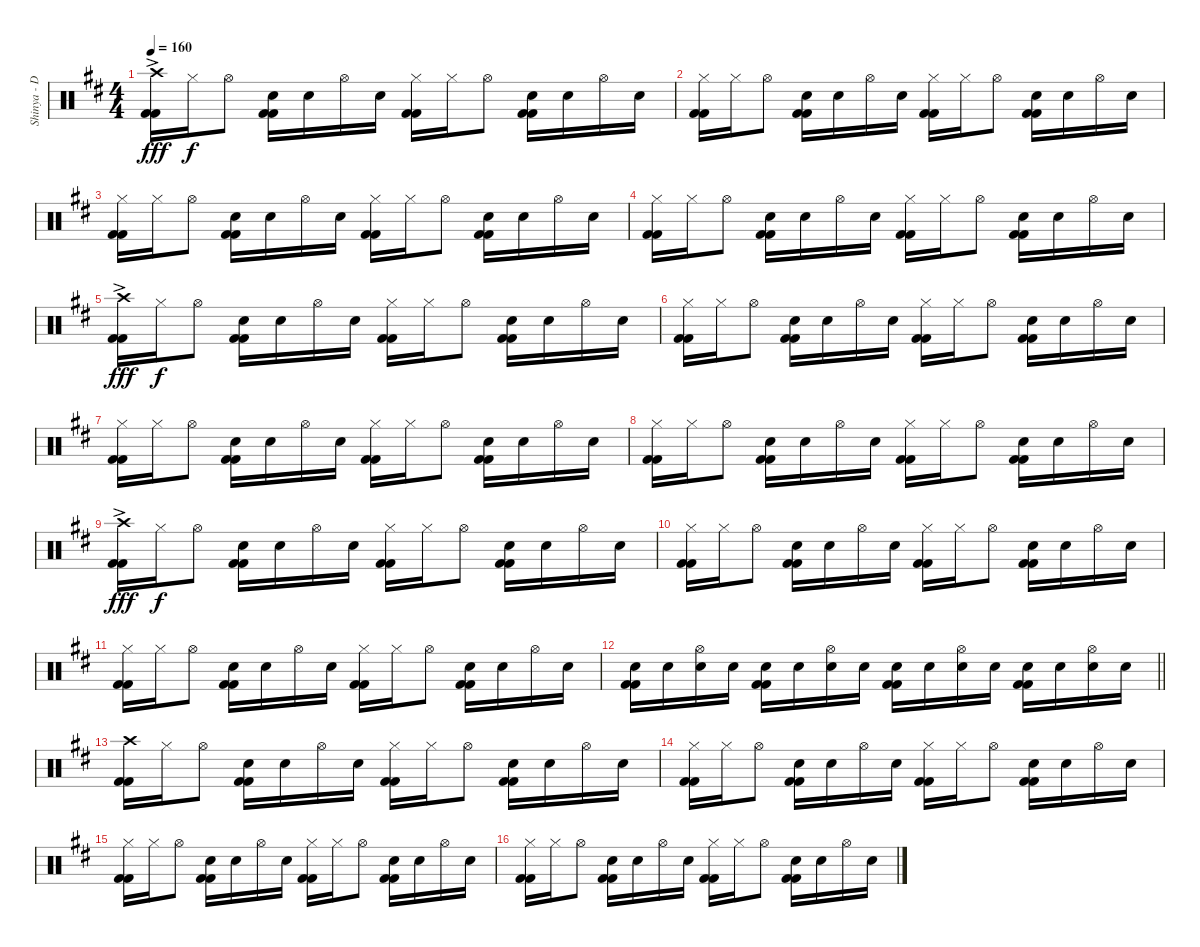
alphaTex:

\track ("Shinya - Drums" "Shinya - D") {instrument percussion}
\staff {score}
\articulation defaults
\ts (4 4)
\tempo 160
\clef neutral
\ks d
("Crash high (hit)"{ac} "Kick (hit) 2" "Kick (hit) 2").16{dy fff} "Hi-Hat (closed)".16{dy f} "Hi-Hat (open)".8 ("Snare (hit) 2" "Kick (hit) 2" "Kick (hit) 2").16 "Snare (hit) 2".16 "Hi-Hat (open)".16 "Snare (hit) 2".16 ("Hi-Hat (closed)" "Kick (hit) 2" "Kick (hit) 2").16 "Hi-Hat (closed)".16 "Hi-Hat (open)".8 ("Snare (hit) 2" "Kick (hit) 2" "Kick (hit) 2").16 "Snare (hit) 2".16 "Hi-Hat (open)".16 "Snare (hit) 2".16 |
("Hi-Hat (closed)" "Kick (hit) 2" "Kick (hit) 2").16 "Hi-Hat (closed)".16 "Hi-Hat (open)".8 ("Snare (hit) 2" "Kick (hit) 2" "Kick (hit) 2").16 "Snare (hit) 2".16 "Hi-Hat (open)".16 "Snare (hit) 2".16 ("Hi-Hat (closed)" "Kick (hit) 2" "Kick (hit) 2").16 "Hi-Hat (closed)".16 "Hi-Hat (open)".8 ("Snare (hit) 2" "Kick (hit) 2" "Kick (hit) 2").16 "Snare (hit) 2".16 "Hi-Hat (open)".16 "Snare (hit) 2".16 |
("Hi-Hat (closed)" "Kick (hit) 2" "Kick (hit) 2").16 "Hi-Hat (closed)".16 "Hi-Hat (open)".8 ("Snare (hit) 2" "Kick (hit) 2" "Kick (hit) 2").16 "Snare (hit) 2".16 "Hi-Hat (open)".16 "Snare (hit) 2".16 ("Hi-Hat (closed)" "Kick (hit) 2" "Kick (hit) 2").16 "Hi-Hat (closed)".16 "Hi-Hat (open)".8 ("Snare (hit) 2" "Kick (hit) 2" "Kick (hit) 2").16 "Snare (hit) 2".16 "Hi-Hat (open)".16 "Snare (hit) 2".16 |
("Hi-Hat (closed)" "Kick (hit) 2" "Kick (hit) 2").16 "Hi-Hat (closed)".16 "Hi-Hat (open)".8 ("Snare (hit) 2" "Kick (hit) 2" "Kick (hit) 2").16 "Snare (hit) 2".16 "Hi-Hat (open)".16 "Snare (hit) 2".16 ("Hi-Hat (closed)" "Kick (hit) 2" "Kick (hit) 2").16 "Hi-Hat (closed)".16 "Hi-Hat (open)".8 ("Snare (hit) 2" "Kick (hit) 2" "Kick (hit) 2").16 "Snare (hit) 2".16 "Hi-Hat (open)".16 "Snare (hit) 2".16 |
("Crash high (hit)"{ac} "Kick (hit) 2" "Kick (hit) 2").16{dy fff} "Hi-Hat (closed)".16{dy f} "Hi-Hat (open)".8 ("Snare (hit) 2" "Kick (hit) 2" "Kick (hit) 2").16 "Snare (hit) 2".16 "Hi-Hat (open)".16 "Snare (hit) 2".16 ("Hi-Hat (closed)" "Kick (hit) 2" "Kick (hit) 2").16 "Hi-Hat (closed)".16 "Hi-Hat (open)".8 ("Snare (hit) 2" "Kick (hit) 2" "Kick (hit) 2").16 "Snare (hit) 2".16 "Hi-Hat (open)".16 "Snare (hit) 2".16 |
("Hi-Hat (closed)" "Kick (hit) 2" "Kick (hit) 2").16 "Hi-Hat (closed)".16 "Hi-Hat (open)".8 ("Snare (hit) 2" "Kick (hit) 2" "Kick (hit) 2").16 "Snare (hit) 2".16 "Hi-Hat (open)".16 "Snare (hit) 2".16 ("Hi-Hat (closed)" "Kick (hit) 2" "Kick (hit) 2").16 "Hi-Hat (closed)".16 "Hi-Hat (open)".8 ("Snare (hit) 2" "Kick (hit) 2" "Kick (hit) 2").16 "Snare (hit) 2".16 "Hi-Hat (open)".16 "Snare (hit) 2".16 |
("Hi-Hat (closed)" "Kick (hit) 2" "Kick (hit) 2").16 "Hi-Hat (closed)".16 "Hi-Hat (open)".8 ("Snare (hit) 2" "Kick (hit) 2" "Kick (hit) 2").16 "Snare (hit) 2".16 "Hi-Hat (open)".16 "Snare (hit) 2".16 ("Hi-Hat (closed)" "Kick (hit) 2" "Kick (hit) 2").16 "Hi-Hat (closed)".16 "Hi-Hat (open)".8 ("Snare (hit) 2" "Kick (hit) 2" "Kick (hit) 2").16 "Snare (hit) 2".16 "Hi-Hat (open)".16 "Snare (hit) 2".16 |
("Hi-Hat (closed)" "Kick (hit) 2" "Kick (hit) 2").16 "Hi-Hat (closed)".16 "Hi-Hat (open)".8 ("Snare (hit) 2" "Kick (hit) 2" "Kick (hit) 2").16 "Snare (hit) 2".16 "Hi-Hat (open)".16 "Snare (hit) 2".16 ("Hi-Hat (closed)" "Kick (hit) 2" "Kick (hit) 2").16 "Hi-Hat (closed)".16 "Hi-Hat (open)".8 ("Snare (hit) 2" "Kick (hit) 2" "Kick (hit) 2").16 "Snare (hit) 2".16 "Hi-Hat (open)".16 "Snare (hit) 2".16 |
("Crash high (hit)"{ac} "Kick (hit) 2" "Kick (hit) 2").16{dy fff} "Hi-Hat (closed)".16{dy f} "Hi-Hat (open)".8 ("Snare (hit) 2" "Kick (hit) 2" "Kick (hit) 2").16 "Snare (hit) 2".16 "Hi-Hat (open)".16 "Snare (hit) 2".16 ("Hi-Hat (closed)" "Kick (hit) 2" "Kick (hit) 2").16 "Hi-Hat (closed)".16 "Hi-Hat (open)".8 ("Snare (hit) 2" "Kick (hit) 2" "Kick (hit) 2").16 "Snare (hit) 2".16 "Hi-Hat (open)".16 "Snare (hit) 2".16 |
("Hi-Hat (closed)" "Kick (hit) 2" "Kick (hit) 2").16 "Hi-Hat (closed)".16 "Hi-Hat (open)".8 ("Snare (hit) 2" "Kick (hit) 2" "Kick (hit) 2").16 "Snare (hit) 2".16 "Hi-Hat (open)".16 "Snare (hit) 2".16 ("Hi-Hat (closed)" "Kick (hit) 2" "Kick (hit) 2").16 "Hi-Hat (closed)".16 "Hi-Hat (open)".8 ("Snare (hit) 2" "Kick (hit) 2" "Kick (hit) 2").16 "Snare (hit) 2".16 "Hi-Hat (open)".16 "Snare (hit) 2".16 |
("Hi-Hat (closed)" "Kick (hit) 2" "Kick (hit) 2").16 "Hi-Hat (closed)".16 "Hi-Hat (open)".8 ("Snare (hit) 2" "Kick (hit) 2" "Kick (hit) 2").16 "Snare (hit) 2".16 "Hi-Hat (open)".16 "Snare (hit) 2".16 ("Hi-Hat (closed)" "Kick (hit) 2" "Kick (hit) 2").16 "Hi-Hat (closed)".16 "Hi-Hat (open)".8 ("Snare (hit) 2" "Kick (hit) 2" "Kick (hit) 2").16 "Snare (hit) 2".16 "Hi-Hat (open)".16 "Snare (hit) 2".16 |
\barLineRight lightlight
("Snare (hit) 2" "Kick (hit) 2" "Kick (hit) 2").16 "Snare (hit) 2".16 ("Hi-Hat (open)" "Snare (hit) 2").16 "Snare (hit) 2".16 ("Snare (hit) 2" "Kick (hit) 2" "Kick (hit) 2").16 "Snare (hit) 2".16 ("Hi-Hat (open)" "Snare (hit) 2").16 "Snare (hit) 2".16 ("Snare (hit) 2" "Kick (hit) 2" "Kick (hit) 2").16 "Snare (hit) 2".16 ("Hi-Hat (open)" "Snare (hit) 2").16 "Snare (hit) 2".16 ("Snare (hit) 2" "Kick (hit) 2" "Kick (hit) 2").16 "Snare (hit) 2".16 ("Hi-Hat (open)" "Snare (hit) 2").16 "Snare (hit) 2".16 |
("Crash high (hit)" "Kick (hit) 2" "Kick (hit) 2").16 "Hi-Hat (closed)".16 "Hi-Hat (open)".8 ("Snare (hit) 2" "Kick (hit) 2" "Kick (hit) 2").16 "Snare (hit) 2".16 "Hi-Hat (open)".16 "Snare (hit) 2".16 ("Hi-Hat (closed)" "Kick (hit) 2" "Kick (hit) 2").16 "Hi-Hat (closed)".16 "Hi-Hat (open)".8 ("Snare (hit) 2" "Kick (hit) 2" "Kick (hit) 2").16 "Snare (hit) 2".16 "Hi-Hat (open)".16 "Snare (hit) 2".16 |
("Hi-Hat (closed)" "Kick (hit) 2" "Kick (hit) 2").16 "Hi-Hat (closed)".16 "Hi-Hat (open)".8 ("Snare (hit) 2" "Kick (hit) 2" "Kick (hit) 2").16 "Snare (hit) 2".16 "Hi-Hat (open)".16 "Snare (hit) 2".16 ("Hi-Hat (closed)" "Kick (hit) 2" "Kick (hit) 2").16 "Hi-Hat (closed)".16 "Hi-Hat (open)".8 ("Snare (hit) 2" "Kick (hit) 2" "Kick (hit) 2").16 "Snare (hit) 2".16 "Hi-Hat (open)".16 "Snare (hit) 2".16 |
("Hi-Hat (closed)" "Kick (hit) 2" "Kick (hit) 2").16 "Hi-Hat (closed)".16 "Hi-Hat (open)".8 ("Snare (hit) 2" "Kick (hit) 2" "Kick (hit) 2").16 "Snare (hit) 2".16 "Hi-Hat (open)".16 "Snare (hit) 2".16 ("Hi-Hat (closed)" "Kick (hit) 2" "Kick (hit) 2").16 "Hi-Hat (closed)".16 "Hi-Hat (open)".8 ("Snare (hit) 2" "Kick (hit) 2" "Kick (hit) 2").16 "Snare (hit) 2".16 "Hi-Hat (open)".16 "Snare (hit) 2".16 |
("Hi-Hat (closed)" "Kick (hit) 2" "Kick (hit) 2").16 "Hi-Hat (closed)".16 "Hi-Hat (open)".8 ("Snare (hit) 2" "Kick (hit) 2" "Kick (hit) 2").16 "Snare (hit) 2".16 "Hi-Hat (open)".16 "Snare (hit) 2".16 ("Hi-Hat (closed)" "Kick (hit) 2" "Kick (hit) 2").16 "Hi-Hat (closed)".16 "Hi-Hat (open)".8 ("Snare (hit) 2" "Kick (hit) 2" "Kick (hit) 2").16 "Snare (hit) 2".16 "Hi-Hat (open)".16 "Snare (hit) 2".16
